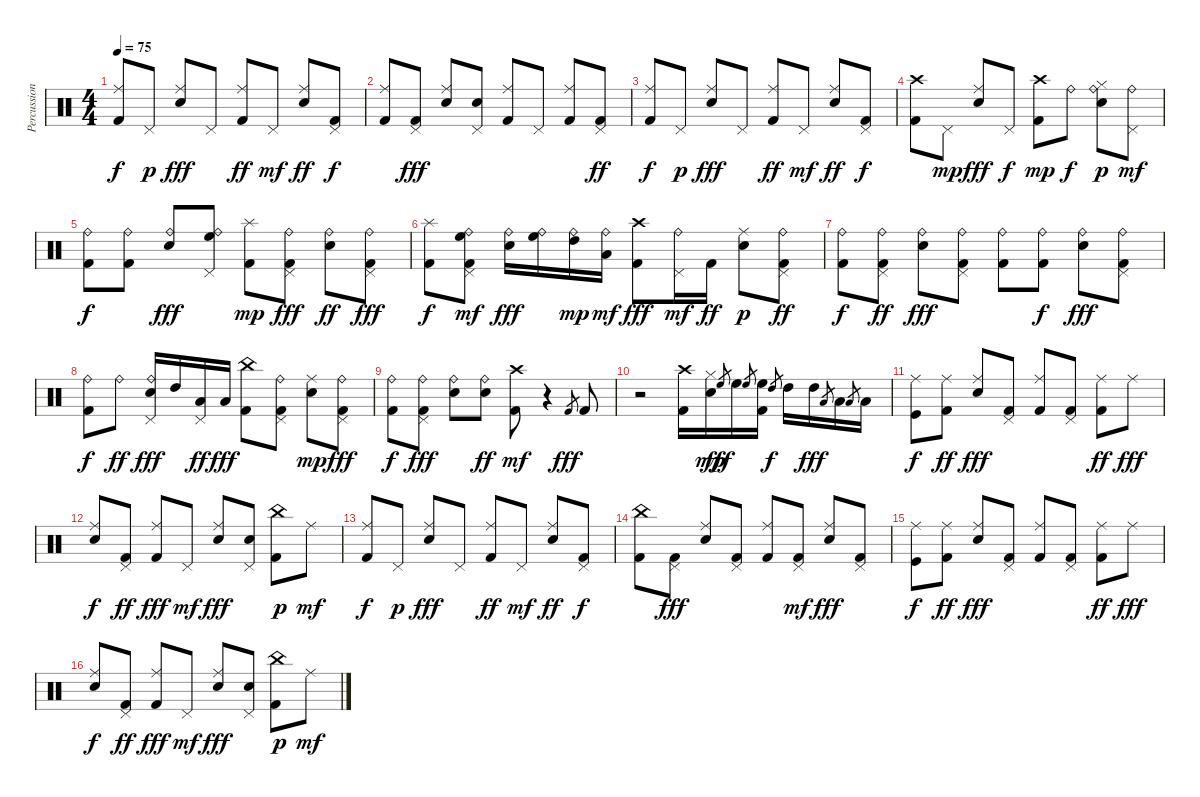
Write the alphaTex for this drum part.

\track ("Percussion" "Percussion") {instrument percussion}
\staff {score}
\articulation defaults
\ts (4 4)
\tempo 75
\clef neutral
\ks c
("Kick (hit) 2" "Ride (middle)").8{dy f} "Pedal Hi-Hat (hit)".8{dy p} ("Snare (hit) 2" "Ride (middle)").8{dy fff} "Pedal Hi-Hat (hit)".8 ("Kick (hit) 2" "Ride (middle)").8{dy ff} "Pedal Hi-Hat (hit)".8{dy mf} ("Snare (hit) 2" "Ride (middle)").8{dy ff} ("Kick (hit) 2" "Pedal Hi-Hat (hit)").8{dy f} |
("Kick (hit) 2" "Ride (middle)").8 ("Kick (hit) 2" "Pedal Hi-Hat (hit)").8{dy fff} ("Snare (hit) 2" "Ride (middle)").8 ("Snare (hit) 2" "Pedal Hi-Hat (hit)").8 ("Kick (hit) 2" "Ride (middle)").8 "Pedal Hi-Hat (hit)".8 ("Kick (hit) 2" "Ride (middle)").8 ("Kick (hit) 2" "Pedal Hi-Hat (hit)").8{dy ff} |
("Kick (hit) 2" "Ride (middle)").8{dy f} "Pedal Hi-Hat (hit)".8{dy p} ("Snare (hit) 2" "Ride (middle)").8{dy fff} "Pedal Hi-Hat (hit)".8 ("Kick (hit) 2" "Ride (middle)").8{dy ff} "Pedal Hi-Hat (hit)".8{dy mf} ("Snare (hit) 2" "Ride (middle)").8{dy ff} ("Kick (hit) 2" "Pedal Hi-Hat (hit)").8{dy f} |
("Kick (hit) 2" "Crash high (hit)").8 "Pedal Hi-Hat (hit)".8{dy mp} ("Snare (hit) 2" "Ride (middle)").8{dy fff} "Pedal Hi-Hat (hit)".8{dy f} ("Kick (hit) 2" "Crash high (hit)").8{dy mp} "Ride (bell)".8{dy f} ("Snare (hit) 2" "Ride (bell)" "Hi-Hat (closed)").8{dy p} ("Ride (bell)" "Pedal Hi-Hat (hit)").8{dy mf} |
("Kick (hit) 2" "Ride (bell)").8{dy f} ("Kick (hit) 2" "Ride (bell)").8 ("Snare (hit) 2" "Ride (bell)").8{dy fff} ("High Floor Tom (hit)" "Ride (bell)" "Pedal Hi-Hat (hit)").8 ("Kick (hit) 2" "Splash (hit)").8{dy mp} ("Kick (hit) 2" "Ride (bell)" "Pedal Hi-Hat (hit)").8{dy fff} ("Snare (hit) 2" "Ride (bell)").8{dy ff} ("Kick (hit) 2" "Ride (bell)" "Pedal Hi-Hat (hit)").8{dy fff} |
("Kick (hit) 2" "Splash (hit)").8{dy f} ("Kick (hit) 2" "High Floor Tom (hit)" "Ride (bell)" "Pedal Hi-Hat (hit)").8{dy mf} ("Snare (hit) 2" "Ride (bell)").16{dy fff} ("High Floor Tom (hit)" "Ride (bell)").16 ("High Tom (hit)" "Ride (bell)").16{dy mp} ("Low Tom (hit)" "Ride (bell)").16{dy mf} ("Kick (hit) 2" "Crash high (hit)").8{dy fff} ("Ride (bell)" "Pedal Hi-Hat (hit)").16{dy mf} "Kick (hit) 2".16{dy ff} ("Snare (hit) 2" "Ride (middle)").8{dy p} ("Kick (hit) 2" "Ride (bell)" "Pedal Hi-Hat (hit)").8{dy ff} |
("Kick (hit) 2" "Ride (bell)").8{dy f} ("Kick (hit) 2" "Ride (bell)" "Pedal Hi-Hat (hit)").8{dy ff} ("Snare (hit) 2" "Ride (bell)").8{dy fff} ("Kick (hit) 2" "Ride (bell)" "Pedal Hi-Hat (hit)").8 ("Kick (hit) 2" "Ride (bell)").8 ("Kick (hit) 2" "Ride (bell)").8{dy f} ("Snare (hit) 2" "Ride (bell)").8{dy fff} ("Kick (hit) 2" "Ride (bell)" "Pedal Hi-Hat (hit)").8 |
("Kick (hit) 2" "Ride (bell)").8{dy f} "Ride (bell)".8{dy ff} ("Snare (hit) 2" "Ride (bell)" "Pedal Hi-Hat (hit)").16{dy fff} "High Tom (hit)".16 ("Low Tom (hit)" "Pedal Hi-Hat (hit)").16{dy ff} "Low Floor Tom (hit)".16{dy fff} ("Kick (hit) 2" "China (hit)").8 ("Kick (hit) 2" "Ride (bell)" "Pedal Hi-Hat (hit)").8 ("Snare (hit) 2" "Ride (middle)").8{dy mp} ("Kick (hit) 2" "Ride (bell)" "Pedal Hi-Hat (hit)").8{dy fff} |
("Kick (hit) 2" "Ride (bell)").8{dy f} ("Kick (hit) 2" "Ride (bell)" "Pedal Hi-Hat (hit)").8{dy fff} ("Snare (hit) 2" "Ride (bell)").8 ("Snare (hit) 2" "Ride (bell)").8{dy ff} ("Kick (hit) 2" "Crash high (hit)").8{dy mf} r.4 "Kick (hit) 2".8{gr dy fff} "Kick (hit) 2".8 |
r.2 ("Kick (hit) 2" "Crash high (hit)").16 ("Snare (hit) 2" "Hi-Hat (closed)").16{dy mp} "High Floor Tom (hit)".8{gr dy fff} "High Floor Tom (hit)".16 "High Floor Tom (hit)".8{gr} ("Kick (hit) 2" "High Floor Tom (hit)").16 "High Tom (hit)".8{gr dy f} "High Tom (hit)".16 "High Tom (hit)".16{dy fff} "Low Tom (hit)".8{gr} "Low Tom (hit)".16 "Low Floor Tom (hit)".8{gr} "Low Floor Tom (hit)".16 |
("Kick (hit)" "Ride (middle)").8{dy f} ("Kick (hit) 2" "Ride (middle)").8{dy ff} ("Snare (hit) 2" "Ride (middle)").8{dy fff} ("Kick (hit) 2" "Pedal Hi-Hat (hit)").8 ("Kick (hit) 2" "Ride (middle)").8 ("Kick (hit) 2" "Pedal Hi-Hat (hit)").8 ("Kick (hit) 2" "Ride (middle)").8{dy ff} "Ride (middle)".8{dy fff} |
("Snare (hit) 2" "Ride (middle)").8{dy f} ("Kick (hit) 2" "Pedal Hi-Hat (hit)").8{dy ff} ("Kick (hit) 2" "Ride (middle)").8{dy fff} "Pedal Hi-Hat (hit)".8{dy mf} ("Snare (hit) 2" "Ride (middle)").8{dy fff} ("Snare (hit) 2" "Pedal Hi-Hat (hit)").8 ("Kick (hit) 2" "China (hit)").8{dy p} "Ride (middle)".8{dy mf} |
("Kick (hit) 2" "Ride (middle)").8{dy f} "Pedal Hi-Hat (hit)".8{dy p} ("Snare (hit) 2" "Ride (middle)").8{dy fff} "Pedal Hi-Hat (hit)".8 ("Kick (hit) 2" "Ride (middle)").8{dy ff} "Pedal Hi-Hat (hit)".8{dy mf} ("Snare (hit) 2" "Ride (middle)").8{dy ff} ("Kick (hit) 2" "Pedal Hi-Hat (hit)").8{dy f} |
("Kick (hit) 2" "China (hit)").8 ("Kick (hit) 2" "Pedal Hi-Hat (hit)").8{dy fff} ("Snare (hit) 2" "Ride (middle)").8 ("Kick (hit) 2" "Pedal Hi-Hat (hit)").8 ("Kick (hit) 2" "Ride (middle)").8 ("Kick (hit) 2" "Pedal Hi-Hat (hit)").8{dy mf} ("Snare (hit) 2" "Ride (middle)").8{dy fff} ("Kick (hit) 2" "Pedal Hi-Hat (hit)").8 |
("Kick (hit)" "Ride (middle)").8{dy f} ("Kick (hit) 2" "Ride (middle)").8{dy ff} ("Snare (hit) 2" "Ride (middle)").8{dy fff} ("Kick (hit) 2" "Pedal Hi-Hat (hit)").8 ("Kick (hit) 2" "Ride (middle)").8 ("Kick (hit) 2" "Pedal Hi-Hat (hit)").8 ("Kick (hit) 2" "Ride (middle)").8{dy ff} "Ride (middle)".8{dy fff} |
("Snare (hit) 2" "Ride (middle)").8{dy f} ("Kick (hit) 2" "Pedal Hi-Hat (hit)").8{dy ff} ("Kick (hit) 2" "Ride (middle)").8{dy fff} "Pedal Hi-Hat (hit)".8{dy mf} ("Snare (hit) 2" "Ride (middle)").8{dy fff} ("Snare (hit) 2" "Pedal Hi-Hat (hit)").8 ("Kick (hit) 2" "China (hit)").8{dy p} "Ride (middle)".8{dy mf}
